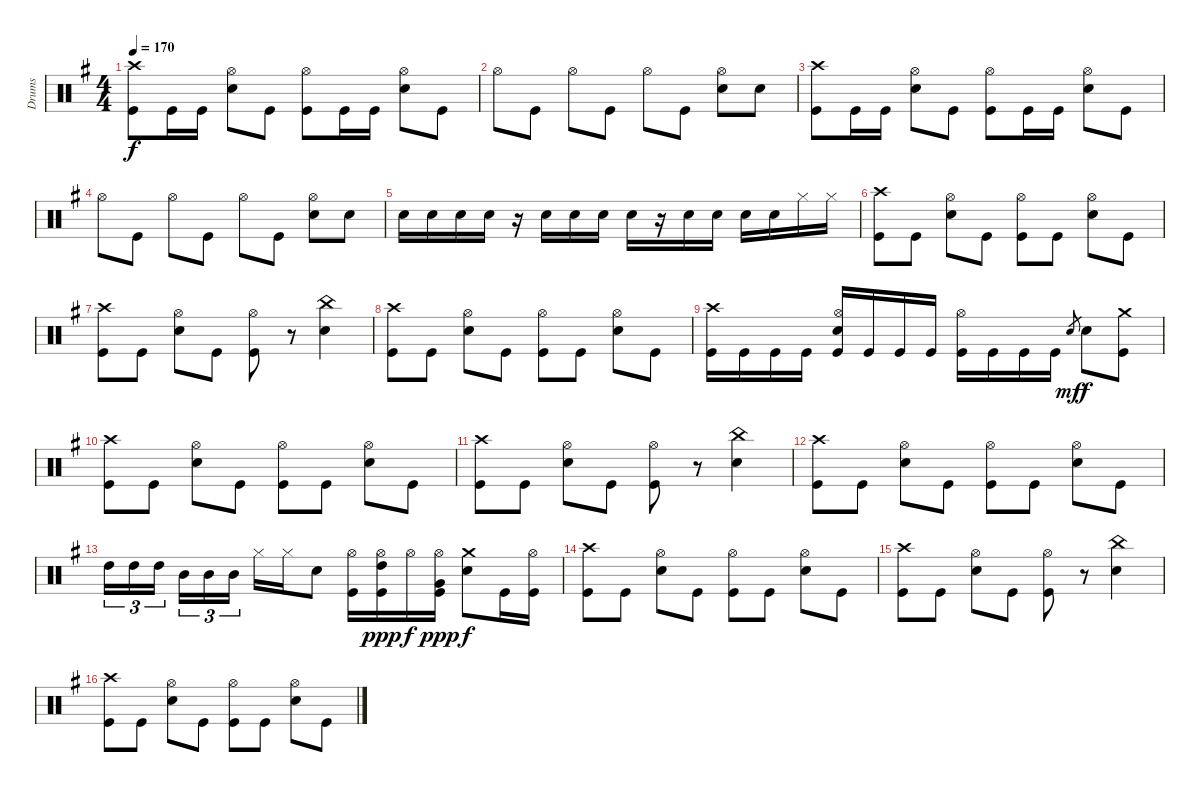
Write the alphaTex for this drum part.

\track ("Drums" "Drums") {instrument percussion}
\staff {score}
\articulation defaults
\ts (4 4)
\tempo 170
\clef neutral
\ks g
("Crash high (hit)" "Kick (hit)").8{dy f} "Kick (hit)".16 "Kick (hit)".16 ("Hi-Hat (open)" "Electric Snare (hit)").8 "Kick (hit)".8 ("Hi-Hat (open)" "Kick (hit)").8 "Kick (hit)".16 "Kick (hit)".16 ("Hi-Hat (open)" "Electric Snare (hit)").8 "Kick (hit)".8 |
"Hi-Hat (open)".8 "Kick (hit)".8 "Hi-Hat (open)".8 "Kick (hit)".8 "Hi-Hat (open)".8 "Kick (hit)".8 ("Hi-Hat (open)" "Electric Snare (hit)").8 "Electric Snare (hit)".8 |
("Crash high (hit)" "Kick (hit)").8 "Kick (hit)".16 "Kick (hit)".16 ("Hi-Hat (open)" "Electric Snare (hit)").8 "Kick (hit)".8 ("Hi-Hat (open)" "Kick (hit)").8 "Kick (hit)".16 "Kick (hit)".16 ("Hi-Hat (open)" "Electric Snare (hit)").8 "Kick (hit)".8 |
"Hi-Hat (open)".8 "Kick (hit)".8 "Hi-Hat (open)".8 "Kick (hit)".8 "Hi-Hat (open)".8 "Kick (hit)".8 ("Hi-Hat (open)" "Electric Snare (hit)").8 "Electric Snare (hit)".8 |
"Electric Snare (hit)".16 "Electric Snare (hit)".16 "Electric Snare (hit)".16 "Electric Snare (hit)".16 r.16 "Electric Snare (hit)".16 "Electric Snare (hit)".16 "Electric Snare (hit)".16 "Electric Snare (hit)".16 r.16 "Electric Snare (hit)".16 "Electric Snare (hit)".16 "Electric Snare (hit)".16 "Electric Snare (hit)".16 "Hi-Hat (closed)".16 "Hi-Hat (closed)".16 |
("Crash high (hit)" "Kick (hit)").8 "Kick (hit)".8 ("Hi-Hat (open)" "Electric Snare (hit)").8 "Kick (hit)".8 ("Hi-Hat (open)" "Kick (hit)").8 "Kick (hit)".8 ("Hi-Hat (open)" "Electric Snare (hit)").8 "Kick (hit)".8 |
("Crash high (hit)" "Kick (hit)").8 "Kick (hit)".8 ("Hi-Hat (open)" "Electric Snare (hit)").8 "Kick (hit)".8 ("Hi-Hat (open)" "Kick (hit)").8 r.8 ("China (hit)" "Electric Snare (hit)").4 |
("Crash high (hit)" "Kick (hit)").8 "Kick (hit)".8 ("Hi-Hat (open)" "Electric Snare (hit)").8 "Kick (hit)".8 ("Hi-Hat (open)" "Kick (hit)").8 "Kick (hit)".8 ("Hi-Hat (open)" "Electric Snare (hit)").8 "Kick (hit)".8 |
("Crash high (hit)" "Kick (hit)").16 "Kick (hit)".16 "Kick (hit)".16 "Kick (hit)".16 ("Hi-Hat (open)" "Electric Snare (hit)" "Kick (hit)").16 "Kick (hit)".16 "Kick (hit)".16 "Kick (hit)".16 ("Hi-Hat (open)" "Kick (hit)").16 "Kick (hit)".16 "Kick (hit)".16 "Kick (hit)".16 "Electric Snare (hit)".8{gr dy mf} "Electric Snare (hit)".8{dy f} ("Crash medium (hit)" "Kick (hit)").8 |
("Crash high (hit)" "Kick (hit)").8 "Kick (hit)".8 ("Hi-Hat (open)" "Electric Snare (hit)").8 "Kick (hit)".8 ("Hi-Hat (open)" "Kick (hit)").8 "Kick (hit)".8 ("Hi-Hat (open)" "Electric Snare (hit)").8 "Kick (hit)".8 |
("Crash high (hit)" "Kick (hit)").8 "Kick (hit)".8 ("Hi-Hat (open)" "Electric Snare (hit)").8 "Kick (hit)".8 ("Hi-Hat (open)" "Kick (hit)").8 r.8 ("China (hit)" "Electric Snare (hit)").4 |
("Crash high (hit)" "Kick (hit)").8 "Kick (hit)".8 ("Hi-Hat (open)" "Electric Snare (hit)").8 "Kick (hit)".8 ("Hi-Hat (open)" "Kick (hit)").8 "Kick (hit)".8 ("Hi-Hat (open)" "Electric Snare (hit)").8 "Kick (hit)".8 |
"High Tom (hit)".16{tu (3 2)} "High Tom (hit)".16{tu (3 2)} "High Tom (hit)".16{tu (3 2)} "Mid Tom (hit)".16{tu (3 2)} "Mid Tom (hit)".16{tu (3 2)} "Mid Tom (hit)".16{tu (3 2)} "Hi-Hat (closed)".16 "Hi-Hat (closed)".16 "Snare (hit) 2".8 ("Hi-Hat (open)" "Kick (hit)").16 ("Hi-Hat (open)" "High Tom (hit)" "Kick (hit)").16{dy ppp} "Hi-Hat (open)".16{dy f} ("Hi-Hat (open)" "Very Low Tom (hit)" "Kick (hit)").16{dy ppp} ("Crash medium (hit)" "Snare (hit) 2").8{dy f} "Kick (hit)".16 ("Hi-Hat (open)" "Kick (hit)").16 |
("Crash high (hit)" "Kick (hit)").8 "Kick (hit)".8 ("Hi-Hat (open)" "Electric Snare (hit)").8 "Kick (hit)".8 ("Hi-Hat (open)" "Kick (hit)").8 "Kick (hit)".8 ("Hi-Hat (open)" "Electric Snare (hit)").8 "Kick (hit)".8 |
("Crash high (hit)" "Kick (hit)").8 "Kick (hit)".8 ("Hi-Hat (open)" "Electric Snare (hit)").8 "Kick (hit)".8 ("Hi-Hat (open)" "Kick (hit)").8 r.8 ("China (hit)" "Electric Snare (hit)").4 |
("Crash high (hit)" "Kick (hit)").8 "Kick (hit)".8 ("Hi-Hat (open)" "Electric Snare (hit)").8 "Kick (hit)".8 ("Hi-Hat (open)" "Kick (hit)").8 "Kick (hit)".8 ("Hi-Hat (open)" "Electric Snare (hit)").8 "Kick (hit)".8
